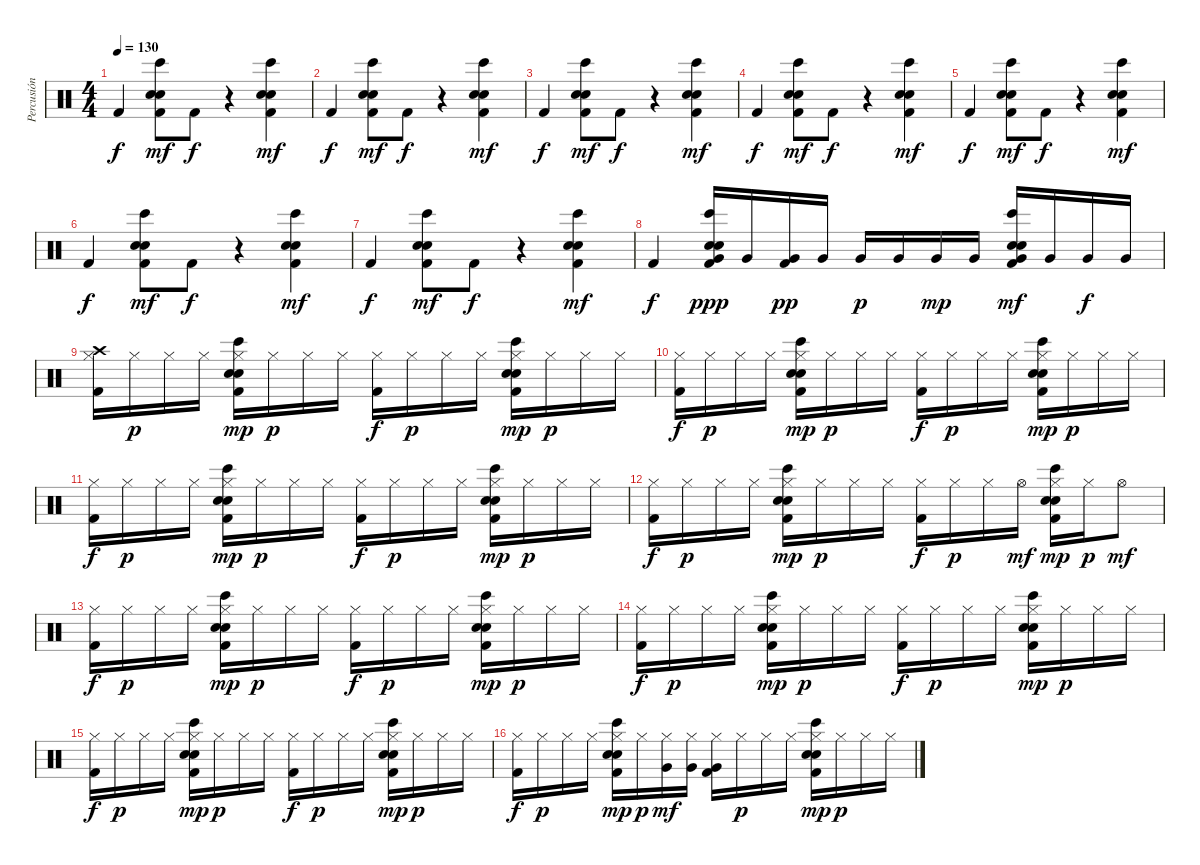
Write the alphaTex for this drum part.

\track ("Percusión" "Percusión") {instrument percussion}
\staff {score}
\articulation defaults
\ts (4 4)
\tempo 130
\clef neutral
\ks c "Kick (hit) 2".4{dy f}
("Kick (hit) 2" "Electric Snare (hit)" "Hand Clap (hit)" "Bongo High (hit)").8{dy mf} "Kick (hit) 2".8{dy f} r.4 ("Kick (hit) 2" "Electric Snare (hit)" "Hand Clap (hit)" "Bongo High (hit)").4{dy mf} |
"Kick (hit) 2".4{dy f} ("Kick (hit) 2" "Electric Snare (hit)" "Hand Clap (hit)" "Bongo High (hit)").8{dy mf} "Kick (hit) 2".8{dy f} r.4 ("Kick (hit) 2" "Electric Snare (hit)" "Hand Clap (hit)" "Bongo High (hit)").4{dy mf} |
"Kick (hit) 2".4{dy f} ("Kick (hit) 2" "Electric Snare (hit)" "Hand Clap (hit)" "Bongo High (hit)").8{dy mf} "Kick (hit) 2".8{dy f} r.4 ("Kick (hit) 2" "Electric Snare (hit)" "Hand Clap (hit)" "Bongo High (hit)").4{dy mf} |
"Kick (hit) 2".4{dy f} ("Kick (hit) 2" "Electric Snare (hit)" "Hand Clap (hit)" "Bongo High (hit)").8{dy mf} "Kick (hit) 2".8{dy f} r.4 ("Kick (hit) 2" "Electric Snare (hit)" "Hand Clap (hit)" "Bongo High (hit)").4{dy mf} |
"Kick (hit) 2".4{dy f} ("Kick (hit) 2" "Electric Snare (hit)" "Hand Clap (hit)" "Bongo High (hit)").8{dy mf} "Kick (hit) 2".8{dy f} r.4 ("Kick (hit) 2" "Electric Snare (hit)" "Hand Clap (hit)" "Bongo High (hit)").4{dy mf} |
"Kick (hit) 2".4{dy f} ("Kick (hit) 2" "Electric Snare (hit)" "Hand Clap (hit)" "Bongo High (hit)").8{dy mf} "Kick (hit) 2".8{dy f} r.4 ("Kick (hit) 2" "Electric Snare (hit)" "Hand Clap (hit)" "Bongo High (hit)").4{dy mf} |
"Kick (hit) 2".4{dy f} ("Kick (hit) 2" "Electric Snare (hit)" "Hand Clap (hit)" "Bongo High (hit)").8{dy mf} "Kick (hit) 2".8{dy f} r.4 ("Kick (hit) 2" "Electric Snare (hit)" "Hand Clap (hit)" "Bongo High (hit)").4{dy mf} |
"Kick (hit) 2".4{dy f} ("Kick (hit) 2" "Electric Snare (hit)" "Hand Clap (hit)" "Bongo High (hit)" "Very Low Tom (hit)").16{dy ppp} "Very Low Tom (hit)".16 ("Kick (hit) 2" "Very Low Tom (hit)").16{dy pp} "Very Low Tom (hit)".16 "Very Low Tom (hit)".16{dy p} "Very Low Tom (hit)".16 "Very Low Tom (hit)".16{dy mp} "Very Low Tom (hit)".16 ("Kick (hit) 2" "Electric Snare (hit)" "Hand Clap (hit)" "Bongo High (hit)" "Very Low Tom (hit)").16{dy mf} "Very Low Tom (hit)".16 "Very Low Tom (hit)".16{dy f} "Very Low Tom (hit)".16 |
("Crash high (hit)" "Hi-Hat (closed)" "Kick (hit) 2").16 "Hi-Hat (closed)".16{dy p} "Hi-Hat (closed)".16 "Hi-Hat (closed)".16 ("Hi-Hat (closed)" "Kick (hit) 2" "Electric Snare (hit)" "Hand Clap (hit)" "Bongo High (hit)").16{dy mp} "Hi-Hat (closed)".16{dy p} "Hi-Hat (closed)".16 "Hi-Hat (closed)".16 ("Hi-Hat (closed)" "Kick (hit) 2").16{dy f} "Hi-Hat (closed)".16{dy p} "Hi-Hat (closed)".16 "Hi-Hat (closed)".16 ("Hi-Hat (closed)" "Kick (hit) 2" "Electric Snare (hit)" "Hand Clap (hit)" "Bongo High (hit)").16{dy mp} "Hi-Hat (closed)".16{dy p} "Hi-Hat (closed)".16 "Hi-Hat (closed)".16 |
("Hi-Hat (closed)" "Kick (hit) 2").16{dy f} "Hi-Hat (closed)".16{dy p} "Hi-Hat (closed)".16 "Hi-Hat (closed)".16 ("Hi-Hat (closed)" "Kick (hit) 2" "Electric Snare (hit)" "Hand Clap (hit)" "Bongo High (hit)").16{dy mp} "Hi-Hat (closed)".16{dy p} "Hi-Hat (closed)".16 "Hi-Hat (closed)".16 ("Hi-Hat (closed)" "Kick (hit) 2").16{dy f} "Hi-Hat (closed)".16{dy p} "Hi-Hat (closed)".16 "Hi-Hat (closed)".16 ("Hi-Hat (closed)" "Kick (hit) 2" "Electric Snare (hit)" "Hand Clap (hit)" "Bongo High (hit)").16{dy mp} "Hi-Hat (closed)".16{dy p} "Hi-Hat (closed)".16 "Hi-Hat (closed)".16 |
("Hi-Hat (closed)" "Kick (hit) 2").16{dy f} "Hi-Hat (closed)".16{dy p} "Hi-Hat (closed)".16 "Hi-Hat (closed)".16 ("Hi-Hat (closed)" "Kick (hit) 2" "Electric Snare (hit)" "Hand Clap (hit)" "Bongo High (hit)").16{dy mp} "Hi-Hat (closed)".16{dy p} "Hi-Hat (closed)".16 "Hi-Hat (closed)".16 ("Hi-Hat (closed)" "Kick (hit) 2").16{dy f} "Hi-Hat (closed)".16{dy p} "Hi-Hat (closed)".16 "Hi-Hat (closed)".16 ("Hi-Hat (closed)" "Kick (hit) 2" "Electric Snare (hit)" "Hand Clap (hit)" "Bongo High (hit)").16{dy mp} "Hi-Hat (closed)".16{dy p} "Hi-Hat (closed)".16 "Hi-Hat (closed)".16 |
("Hi-Hat (closed)" "Kick (hit) 2").16{dy f} "Hi-Hat (closed)".16{dy p} "Hi-Hat (closed)".16 "Hi-Hat (closed)".16 ("Hi-Hat (closed)" "Kick (hit) 2" "Electric Snare (hit)" "Hand Clap (hit)" "Bongo High (hit)").16{dy mp} "Hi-Hat (closed)".16{dy p} "Hi-Hat (closed)".16 "Hi-Hat (closed)".16 ("Hi-Hat (closed)" "Kick (hit) 2").16{dy f} "Hi-Hat (closed)".16{dy p} "Hi-Hat (closed)".16 "Hi-Hat (open)".16{dy mf} ("Hi-Hat (closed)" "Kick (hit) 2" "Electric Snare (hit)" "Hand Clap (hit)" "Bongo High (hit)").16{dy mp} "Hi-Hat (closed)".16{dy p} "Hi-Hat (open)".8{dy mf} |
("Hi-Hat (closed)" "Kick (hit) 2").16{dy f} "Hi-Hat (closed)".16{dy p} "Hi-Hat (closed)".16 "Hi-Hat (closed)".16 ("Hi-Hat (closed)" "Kick (hit) 2" "Electric Snare (hit)" "Hand Clap (hit)" "Bongo High (hit)").16{dy mp} "Hi-Hat (closed)".16{dy p} "Hi-Hat (closed)".16 "Hi-Hat (closed)".16 ("Hi-Hat (closed)" "Kick (hit) 2").16{dy f} "Hi-Hat (closed)".16{dy p} "Hi-Hat (closed)".16 "Hi-Hat (closed)".16 ("Hi-Hat (closed)" "Kick (hit) 2" "Electric Snare (hit)" "Hand Clap (hit)" "Bongo High (hit)").16{dy mp} "Hi-Hat (closed)".16{dy p} "Hi-Hat (closed)".16 "Hi-Hat (closed)".16 |
("Hi-Hat (closed)" "Kick (hit) 2").16{dy f} "Hi-Hat (closed)".16{dy p} "Hi-Hat (closed)".16 "Hi-Hat (closed)".16 ("Hi-Hat (closed)" "Kick (hit) 2" "Electric Snare (hit)" "Hand Clap (hit)" "Bongo High (hit)").16{dy mp} "Hi-Hat (closed)".16{dy p} "Hi-Hat (closed)".16 "Hi-Hat (closed)".16 ("Hi-Hat (closed)" "Kick (hit) 2").16{dy f} "Hi-Hat (closed)".16{dy p} "Hi-Hat (closed)".16 "Hi-Hat (closed)".16 ("Hi-Hat (closed)" "Kick (hit) 2" "Electric Snare (hit)" "Hand Clap (hit)" "Bongo High (hit)").16{dy mp} "Hi-Hat (closed)".16{dy p} "Hi-Hat (closed)".16 "Hi-Hat (closed)".16 |
("Hi-Hat (closed)" "Kick (hit) 2").16{dy f} "Hi-Hat (closed)".16{dy p} "Hi-Hat (closed)".16 "Hi-Hat (closed)".16 ("Hi-Hat (closed)" "Kick (hit) 2" "Electric Snare (hit)" "Hand Clap (hit)" "Bongo High (hit)").16{dy mp} "Hi-Hat (closed)".16{dy p} "Hi-Hat (closed)".16 "Hi-Hat (closed)".16 ("Hi-Hat (closed)" "Kick (hit) 2").16{dy f} "Hi-Hat (closed)".16{dy p} "Hi-Hat (closed)".16 "Hi-Hat (closed)".16 ("Hi-Hat (closed)" "Kick (hit) 2" "Electric Snare (hit)" "Hand Clap (hit)" "Bongo High (hit)").16{dy mp} "Hi-Hat (closed)".16{dy p} "Hi-Hat (closed)".16 "Hi-Hat (closed)".16 |
("Hi-Hat (closed)" "Kick (hit) 2").16{dy f} "Hi-Hat (closed)".16{dy p} "Hi-Hat (closed)".16 "Hi-Hat (closed)".16 ("Hi-Hat (closed)" "Kick (hit) 2" "Electric Snare (hit)" "Hand Clap (hit)" "Bongo High (hit)").16{dy mp} "Hi-Hat (closed)".16{dy p} ("Hi-Hat (closed)" "Very Low Tom (hit)").16{dy mf} ("Hi-Hat (closed)" "Very Low Tom (hit)").16 ("Hi-Hat (closed)" "Kick (hit) 2" "Very Low Tom (hit)").16 "Hi-Hat (closed)".16{dy p} "Hi-Hat (closed)".16 "Hi-Hat (closed)".16 ("Hi-Hat (closed)" "Kick (hit) 2" "Electric Snare (hit)" "Hand Clap (hit)" "Bongo High (hit)").16{dy mp} "Hi-Hat (closed)".16{dy p} "Hi-Hat (closed)".16 "Hi-Hat (closed)".16
